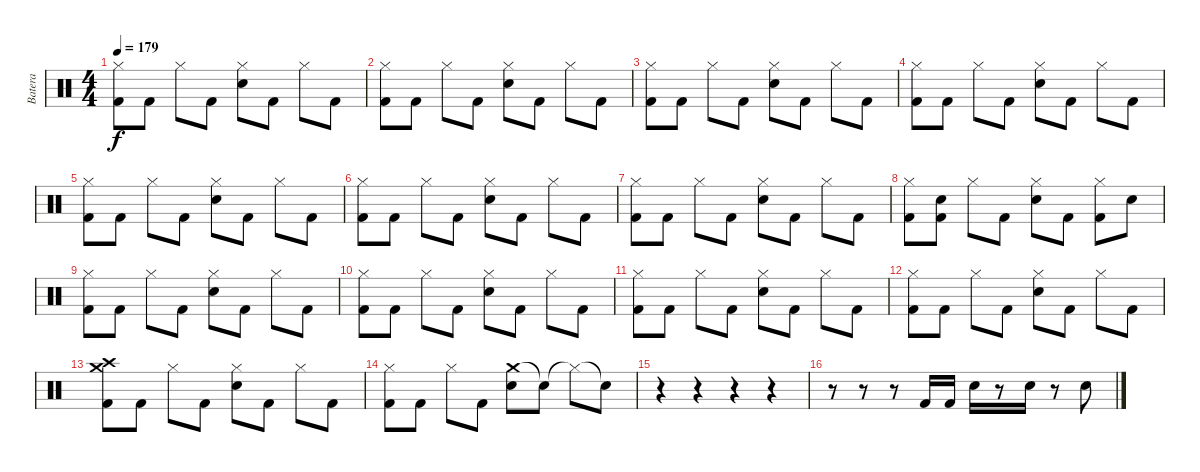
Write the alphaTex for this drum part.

\track ("Batera" "Batera") {instrument percussion}
\staff {score}
\articulation defaults
\ts (4 4)
\tempo 179
\clef neutral
\ks c
("Hi-Hat (closed)" "Kick (hit) 2").8{dy f volume 16} "Kick (hit) 2".8 "Hi-Hat (closed)".8 "Kick (hit) 2".8 ("Hi-Hat (closed)" "Electric Snare (hit)").8 "Kick (hit) 2".8 "Hi-Hat (closed)".8 "Kick (hit) 2".8 |
("Hi-Hat (closed)" "Kick (hit) 2").8 "Kick (hit) 2".8 "Hi-Hat (closed)".8 "Kick (hit) 2".8 ("Hi-Hat (closed)" "Electric Snare (hit)").8 "Kick (hit) 2".8 "Hi-Hat (closed)".8 "Kick (hit) 2".8 |
("Hi-Hat (closed)" "Kick (hit) 2").8 "Kick (hit) 2".8 "Hi-Hat (closed)".8 "Kick (hit) 2".8 ("Hi-Hat (closed)" "Electric Snare (hit)").8 "Kick (hit) 2".8 "Hi-Hat (closed)".8 "Kick (hit) 2".8 |
("Hi-Hat (closed)" "Kick (hit) 2").8 "Kick (hit) 2".8 "Hi-Hat (closed)".8 "Kick (hit) 2".8 ("Hi-Hat (closed)" "Electric Snare (hit)").8 "Kick (hit) 2".8 "Hi-Hat (closed)".8 "Kick (hit) 2".8 |
("Hi-Hat (closed)" "Kick (hit) 2").8 "Kick (hit) 2".8 "Hi-Hat (closed)".8 "Kick (hit) 2".8 ("Hi-Hat (closed)" "Electric Snare (hit)").8 "Kick (hit) 2".8 "Hi-Hat (closed)".8 "Kick (hit) 2".8 |
("Hi-Hat (closed)" "Kick (hit) 2").8 "Kick (hit) 2".8 "Hi-Hat (closed)".8 "Kick (hit) 2".8 ("Hi-Hat (closed)" "Electric Snare (hit)").8 "Kick (hit) 2".8 "Hi-Hat (closed)".8 "Kick (hit) 2".8 |
("Hi-Hat (closed)" "Kick (hit) 2").8 "Kick (hit) 2".8 "Hi-Hat (closed)".8 "Kick (hit) 2".8 ("Hi-Hat (closed)" "Electric Snare (hit)").8 "Kick (hit) 2".8 "Hi-Hat (closed)".8 "Kick (hit) 2".8 |
("Hi-Hat (closed)" "Kick (hit) 2").8 ("Electric Snare (hit)" "Kick (hit) 2").8 "Hi-Hat (closed)".8 "Kick (hit) 2".8 ("Hi-Hat (closed)" "Electric Snare (hit)").8 "Kick (hit) 2".8 ("Hi-Hat (closed)" "Kick (hit) 2").8 "Electric Snare (hit)".8 |
("Hi-Hat (closed)" "Kick (hit) 2").8 "Kick (hit) 2".8 "Hi-Hat (closed)".8 "Kick (hit) 2".8 ("Hi-Hat (closed)" "Electric Snare (hit)").8 "Kick (hit) 2".8 "Hi-Hat (closed)".8 "Kick (hit) 2".8 |
("Hi-Hat (closed)" "Kick (hit) 2").8 "Kick (hit) 2".8 "Hi-Hat (closed)".8 "Kick (hit) 2".8 ("Hi-Hat (closed)" "Electric Snare (hit)").8 "Kick (hit) 2".8 "Hi-Hat (closed)".8 "Kick (hit) 2".8 |
("Hi-Hat (closed)" "Kick (hit) 2").8 "Kick (hit) 2".8 "Hi-Hat (closed)".8 "Kick (hit) 2".8 ("Hi-Hat (closed)" "Electric Snare (hit)").8 "Kick (hit) 2".8 "Hi-Hat (closed)".8 "Kick (hit) 2".8 |
("Hi-Hat (closed)" "Kick (hit) 2").8 "Kick (hit) 2".8 "Hi-Hat (closed)".8 "Kick (hit) 2".8 ("Hi-Hat (closed)" "Electric Snare (hit)").8 "Kick (hit) 2".8 "Hi-Hat (closed)".8 "Kick (hit) 2".8 |
("Crash high (hit)" "Crash medium (hit)" "Kick (hit) 2").8 "Kick (hit) 2".8 "Hi-Hat (closed)".8 "Kick (hit) 2".8 ("Hi-Hat (closed)" "Electric Snare (hit)").8 "Kick (hit) 2".8 "Hi-Hat (closed)".8 "Kick (hit) 2".8 |
("Hi-Hat (closed)" "Kick (hit) 2").8 "Kick (hit) 2".8 "Hi-Hat (closed)".8 "Kick (hit) 2".8 ("Crash medium (hit)" "Electric Snare (hit)").8 "Snare (hit)"{t}.8 "Hi-Hat (closed)"{t}.8 "Snare (hit)"{t}.8 |
r.4 r.4 r.4 r.4 |
r.8 r.8 r.8 "Kick (hit) 2".16 "Kick (hit) 2".16 "Electric Snare (hit)".16 r.8 "Electric Snare (hit)".16 r.8 "Electric Snare (hit)".8
